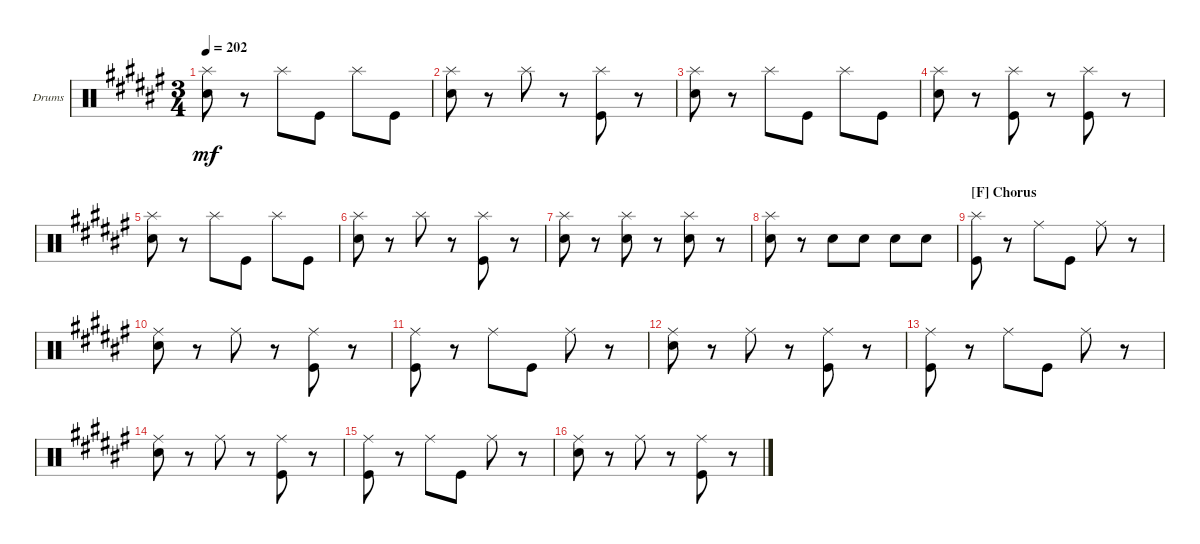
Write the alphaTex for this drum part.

\defaultSystemsLayout 4
\bracketExtendMode groupsimilarinstruments
\firstSystemTrackNameOrientation horizontal
\otherSystemsTrackNameOrientation horizontal
\track ("Drumkit" "Drums") {instrument percussion}
\staff {score}
\articulation defaults
\ts (3 4)
\tempo 202
\clef neutral
\ks f#
("Splash (hit)" "Snare (hit) 2").8{dy mf} r.8 "Splash (hit)".8 "Kick (hit)".8 "Splash (hit)".8 "Kick (hit)".8 |
("Splash (hit)" "Snare (hit) 2").8 r.8 "Splash (hit)".8 r.8 ("Splash (hit)" "Kick (hit)").8 r.8 |
("Splash (hit)" "Snare (hit) 2").8 r.8 "Splash (hit)".8 "Kick (hit)".8 "Splash (hit)".8 "Kick (hit)".8 |
("Splash (hit)" "Snare (hit) 2").8 r.8 ("Splash (hit)" "Kick (hit)").8 r.8 ("Splash (hit)" "Kick (hit)").8 r.8 |
("Splash (hit)" "Snare (hit) 2").8 r.8 "Splash (hit)".8 "Kick (hit)".8 "Splash (hit)".8 "Kick (hit)".8 |
("Splash (hit)" "Snare (hit) 2").8 r.8 "Splash (hit)".8 r.8 ("Splash (hit)" "Kick (hit)").8 r.8 |
("Splash (hit)" "Snare (hit) 2").8 r.8 ("Splash (hit)" "Snare (hit) 2").8 r.8 ("Splash (hit)" "Snare (hit) 2").8 r.8 |
("Splash (hit)" "Snare (hit) 2").8 r.8 "Snare (hit) 2".8 "Snare (hit) 2".8 "Snare (hit) 2".8 "Snare (hit) 2".8 |
\section ("F" "Chorus")
("Kick (hit)" "Splash (hit)").8 r.8 "Ride (middle)".8 "Kick (hit)".8 "Ride (middle)".8 r.8 |
("Snare (hit) 2" "Ride (middle)").8 r.8 "Ride (middle)".8 r.8 ("Kick (hit)" "Ride (middle)").8 r.8 |
("Kick (hit)" "Ride (middle)").8 r.8 "Ride (middle)".8 "Kick (hit)".8 "Ride (middle)".8 r.8 |
("Snare (hit) 2" "Ride (middle)").8 r.8 "Ride (middle)".8 r.8 ("Kick (hit)" "Ride (middle)").8 r.8 |
("Kick (hit)" "Ride (middle)").8 r.8 "Ride (middle)".8 "Kick (hit)".8 "Ride (middle)".8 r.8 |
("Snare (hit) 2" "Ride (middle)").8 r.8 "Ride (middle)".8 r.8 ("Kick (hit)" "Ride (middle)").8 r.8 |
("Kick (hit)" "Ride (middle)").8 r.8 "Ride (middle)".8 "Kick (hit)".8 "Ride (middle)".8 r.8 |
("Snare (hit) 2" "Ride (middle)").8 r.8 "Ride (middle)".8 r.8 ("Kick (hit)" "Ride (middle)").8 r.8
